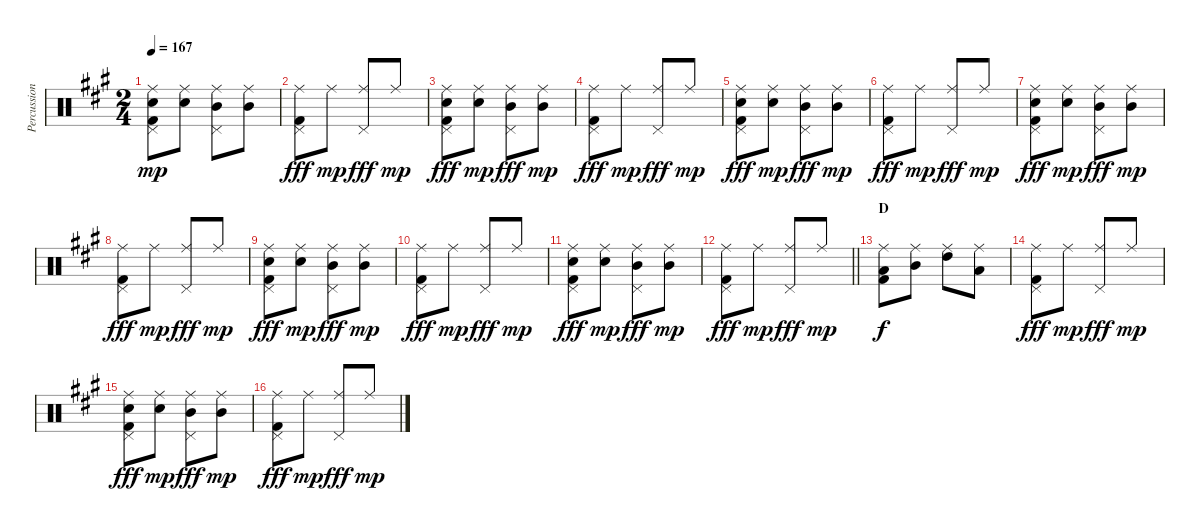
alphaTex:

\track ("Percussion" "Percussion") {instrument percussion}
\staff {score}
\articulation defaults
\ts (2 4)
\tempo 167
\clef neutral
\ks a
("Ride (middle)" "Snare (hit) 2" "Pedal Hi-Hat (hit)" "Kick (hit) 2").8{dy mp} ("Ride (middle)" "Snare (hit) 2").8 ("Ride (middle)" "Mid Tom (hit)" "Pedal Hi-Hat (hit)").8 ("Ride (middle)" "Mid Tom (hit)").8 |
("Ride (middle)" "Pedal Hi-Hat (hit)" "Kick (hit) 2").8{dy fff} "Ride (middle)".8{dy mp} ("Ride (middle)" "Pedal Hi-Hat (hit)").8{dy fff} "Ride (middle)".8{dy mp} |
("Ride (middle)" "Snare (hit) 2" "Pedal Hi-Hat (hit)" "Kick (hit) 2").8{dy fff} ("Ride (middle)" "Snare (hit) 2").8{dy mp} ("Ride (middle)" "Mid Tom (hit)" "Pedal Hi-Hat (hit)").8{dy fff} ("Ride (middle)" "Mid Tom (hit)").8{dy mp} |
("Ride (middle)" "Pedal Hi-Hat (hit)" "Kick (hit) 2").8{dy fff} "Ride (middle)".8{dy mp} ("Ride (middle)" "Pedal Hi-Hat (hit)").8{dy fff} "Ride (middle)".8{dy mp} |
("Ride (middle)" "Snare (hit) 2" "Pedal Hi-Hat (hit)" "Kick (hit) 2").8{dy fff} ("Ride (middle)" "Snare (hit) 2").8{dy mp} ("Ride (middle)" "Mid Tom (hit)" "Pedal Hi-Hat (hit)").8{dy fff} ("Ride (middle)" "Mid Tom (hit)").8{dy mp} |
("Ride (middle)" "Pedal Hi-Hat (hit)" "Kick (hit) 2").8{dy fff} "Ride (middle)".8{dy mp} ("Ride (middle)" "Pedal Hi-Hat (hit)").8{dy fff} "Ride (middle)".8{dy mp} |
("Ride (middle)" "Snare (hit) 2" "Pedal Hi-Hat (hit)" "Kick (hit) 2").8{dy fff} ("Ride (middle)" "Snare (hit) 2").8{dy mp} ("Ride (middle)" "Mid Tom (hit)" "Pedal Hi-Hat (hit)").8{dy fff} ("Ride (middle)" "Mid Tom (hit)").8{dy mp} |
("Ride (middle)" "Pedal Hi-Hat (hit)" "Kick (hit) 2").8{dy fff} "Ride (middle)".8{dy mp} ("Ride (middle)" "Pedal Hi-Hat (hit)").8{dy fff} "Ride (middle)".8{dy mp} |
("Ride (middle)" "Snare (hit) 2" "Pedal Hi-Hat (hit)" "Kick (hit) 2").8{dy fff} ("Ride (middle)" "Snare (hit) 2").8{dy mp} ("Ride (middle)" "Mid Tom (hit)" "Pedal Hi-Hat (hit)").8{dy fff} ("Ride (middle)" "Mid Tom (hit)").8{dy mp} |
("Ride (middle)" "Pedal Hi-Hat (hit)" "Kick (hit) 2").8{dy fff} "Ride (middle)".8{dy mp} ("Ride (middle)" "Pedal Hi-Hat (hit)").8{dy fff} "Ride (middle)".8{dy mp} |
("Ride (middle)" "Snare (hit) 2" "Pedal Hi-Hat (hit)" "Kick (hit) 2").8{dy fff} ("Ride (middle)" "Snare (hit) 2").8{dy mp} ("Ride (middle)" "Mid Tom (hit)" "Pedal Hi-Hat (hit)").8{dy fff} ("Ride (middle)" "Mid Tom (hit)").8{dy mp} |
\barLineRight lightlight
("Ride (middle)" "Pedal Hi-Hat (hit)" "Kick (hit) 2").8{dy fff} "Ride (middle)".8{dy mp} ("Ride (middle)" "Pedal Hi-Hat (hit)").8{dy fff} "Ride (middle)".8{dy mp} |
\section ("" "D")
("Ride (middle)" "Low Tom (hit)" "Kick (hit) 2").8{dy f} ("Ride (middle)" "Mid Tom (hit)").8 ("Ride (middle)" "High Tom (hit)").8 ("Ride (middle)" "Low Tom (hit)").8 |
("Ride (middle)" "Pedal Hi-Hat (hit)" "Kick (hit) 2").8{dy fff} "Ride (middle)".8{dy mp} ("Ride (middle)" "Pedal Hi-Hat (hit)").8{dy fff} "Ride (middle)".8{dy mp} |
("Ride (middle)" "Snare (hit) 2" "Pedal Hi-Hat (hit)" "Kick (hit) 2").8{dy fff} ("Ride (middle)" "Snare (hit) 2").8{dy mp} ("Ride (middle)" "Mid Tom (hit)" "Pedal Hi-Hat (hit)").8{dy fff} ("Ride (middle)" "Mid Tom (hit)").8{dy mp} |
("Ride (middle)" "Pedal Hi-Hat (hit)" "Kick (hit) 2").8{dy fff} "Ride (middle)".8{dy mp} ("Ride (middle)" "Pedal Hi-Hat (hit)").8{dy fff} "Ride (middle)".8{dy mp}
